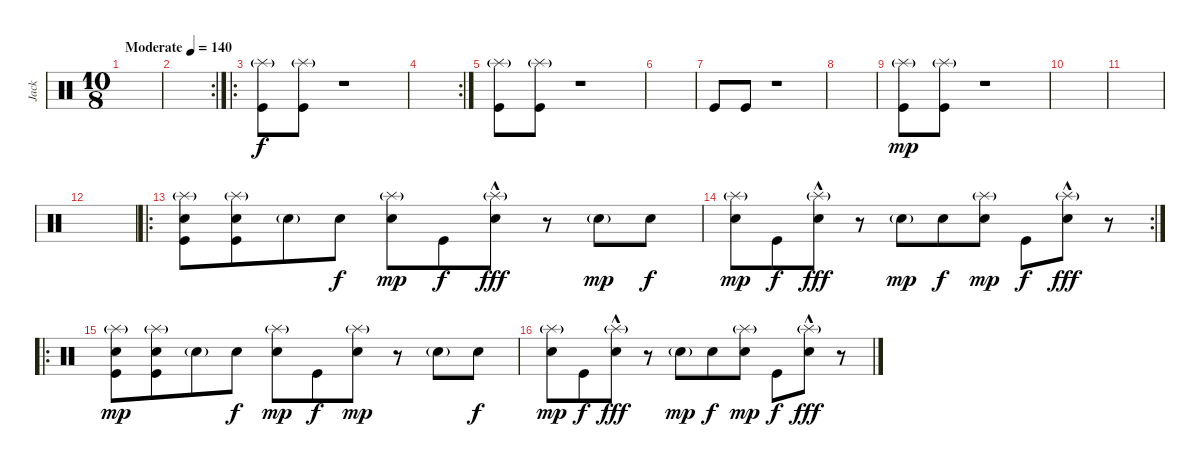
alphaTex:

\track ("Jack" "Jack") {instrument percussion}
\staff {score}
\articulation defaults
\ts (10 8)
\tempo (140 "Moderate")
\clef neutral
\ks c
|
\rc 2
|
\ro
("Splash (hit)"{g} "Kick (hit)").8 ("Splash (hit)"{g} "Kick (hit)").8 r.1 |
\rc 2
|
("Splash (hit)"{g} "Kick (hit)").8 ("Splash (hit)"{g} "Kick (hit)").8 r.1 |
|
"Kick (hit)".8{dy f} "Kick (hit)".8 r.1 |
|
("Splash (hit)"{g} "Kick (hit)").8{dy mp} ("Splash (hit)"{g} "Kick (hit)").8 r.1 |
|
|
|
\ro
("Splash (hit)"{g} "Snare (hit) 2" "Kick (hit)").8 ("Splash (hit)"{g} "Snare (hit) 2" "Kick (hit)").8 "Electric Snare (hit)"{g}.8 "Snare (hit) 2".8{dy f} ("Splash (hit)"{g} "Snare (hit) 2").8{dy mp} "Kick (hit)".8{dy f} ("Splash (hit)"{g} "Snare (hit) 2"{hac}).8{dy fff} r.8 "Electric Snare (hit)"{g}.8{dy mp} "Snare (hit) 2".8{dy f} |
\rc 2
("Splash (hit)"{g} "Snare (hit) 2").8{dy mp} "Kick (hit)".8{dy f} ("Splash (hit)"{g} "Snare (hit) 2"{hac}).8{dy fff} r.8 "Electric Snare (hit)"{g}.8{dy mp} "Snare (hit) 2".8{dy f} ("Splash (hit)"{g} "Snare (hit) 2").8{dy mp} "Kick (hit)".8{dy f} ("Splash (hit)"{g} "Snare (hit) 2"{hac}).8{dy fff} r.8 |
\ro
("Splash (hit)"{g} "Snare (hit) 2" "Kick (hit)").8{dy mp} ("Splash (hit)"{g} "Snare (hit) 2" "Kick (hit)").8 "Electric Snare (hit)"{g}.8 "Snare (hit) 2".8{dy f} ("Splash (hit)"{g} "Snare (hit) 2").8{dy mp} "Kick (hit)".8{dy f} ("Splash (hit)"{g} "Snare (hit) 2").8{dy mp} r.8 "Electric Snare (hit)"{g}.8 "Snare (hit) 2".8{dy f} |
("Splash (hit)"{g} "Snare (hit) 2").8{dy mp} "Kick (hit)".8{dy f} ("Splash (hit)"{g} "Snare (hit) 2"{hac}).8{dy fff} r.8 "Electric Snare (hit)"{g}.8{dy mp} "Snare (hit) 2".8{dy f} ("Splash (hit)"{g} "Snare (hit) 2").8{dy mp} "Kick (hit)".8{dy f} ("Splash (hit)"{g} "Snare (hit) 2"{hac}).8{dy fff} r.8
